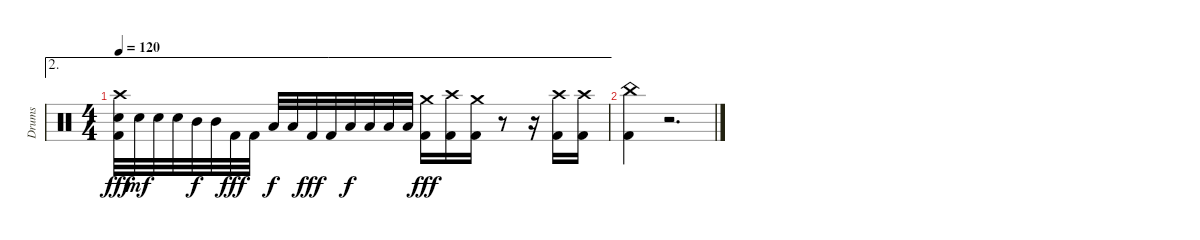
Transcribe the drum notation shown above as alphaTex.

\track ("Drums" "Drums") {instrument percussion}
\staff {score}
\articulation defaults
\ae 2
\ts (4 4)
\tempo 120
\clef neutral
\ks c
("Crash high (hit)" "Electric Snare (hit)" "Kick (hit) 2").32{dy fff} "Electric Snare (hit)".32{dy mf} "Electric Snare (hit)".32 "Electric Snare (hit)".32 "Mid Tom (hit)".32{dy f} "Mid Tom (hit)".32 "Kick (hit) 2".32{dy fff} "Kick (hit) 2".32 "Low Tom (hit)".32{dy f} "Low Tom (hit)".32 "Kick (hit) 2".32{dy fff} "Kick (hit) 2".32 "Low Tom (hit)".32{dy f} "Low Tom (hit)".32 "Low Tom (hit)".32 "Low Tom (hit)".32 ("Crash medium (hit)" "Kick (hit) 2").16{dy fff} ("Crash high (hit)" "Kick (hit) 2").16 ("Crash medium (hit)" "Kick (hit) 2").16 r.8 r.16 ("Crash high (hit)" "Kick (hit) 2").16 ("Crash high (hit)" "Kick (hit) 2").16 |
("China (hit)" "Kick (hit) 2").4 r.2{d}
